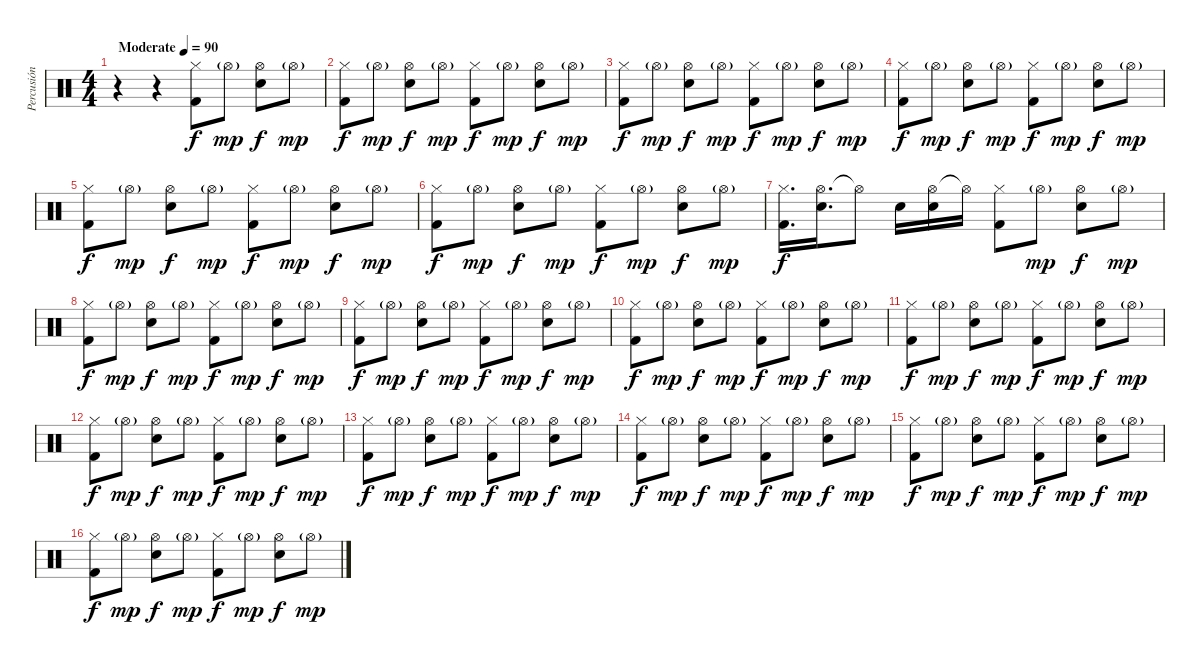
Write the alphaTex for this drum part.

\track ("Percusión" "Percusión") {instrument percussion}
\staff {score}
\articulation defaults
\ts (4 4)
\tempo (90 "Moderate")
\clef neutral
\ks c
r.4{dy f} r.4 ("Hi-Hat (closed)" "Kick (hit) 2").8 "Hi-Hat (open)"{g}.8{dy mp} ("Hi-Hat (open)" "Snare (hit) 2").8{dy f} "Hi-Hat (open)"{g}.8{dy mp} |
("Hi-Hat (closed)" "Kick (hit) 2").8{dy f} "Hi-Hat (open)"{g}.8{dy mp} ("Hi-Hat (open)" "Snare (hit) 2").8{dy f} "Hi-Hat (open)"{g}.8{dy mp} ("Hi-Hat (closed)" "Kick (hit) 2").8{dy f} "Hi-Hat (open)"{g}.8{dy mp} ("Hi-Hat (open)" "Snare (hit) 2").8{dy f} "Hi-Hat (open)"{g}.8{dy mp} |
("Hi-Hat (closed)" "Kick (hit) 2").8{dy f} "Hi-Hat (open)"{g}.8{dy mp} ("Hi-Hat (open)" "Snare (hit) 2").8{dy f} "Hi-Hat (open)"{g}.8{dy mp} ("Hi-Hat (closed)" "Kick (hit) 2").8{dy f} "Hi-Hat (open)"{g}.8{dy mp} ("Hi-Hat (open)" "Snare (hit) 2").8{dy f} "Hi-Hat (open)"{g}.8{dy mp} |
("Hi-Hat (closed)" "Kick (hit) 2").8{dy f} "Hi-Hat (open)"{g}.8{dy mp} ("Hi-Hat (open)" "Snare (hit) 2").8{dy f} "Hi-Hat (open)"{g}.8{dy mp} ("Hi-Hat (closed)" "Kick (hit) 2").8{dy f} "Hi-Hat (open)"{g}.8{dy mp} ("Hi-Hat (open)" "Snare (hit) 2").8{dy f} "Hi-Hat (open)"{g}.8{dy mp} |
("Hi-Hat (closed)" "Kick (hit) 2").8{dy f} "Hi-Hat (open)"{g}.8{dy mp} ("Hi-Hat (open)" "Snare (hit) 2").8{dy f} "Hi-Hat (open)"{g}.8{dy mp} ("Hi-Hat (closed)" "Kick (hit) 2").8{dy f} "Hi-Hat (open)"{g}.8{dy mp} ("Hi-Hat (open)" "Snare (hit) 2").8{dy f} "Hi-Hat (open)"{g}.8{dy mp} |
("Hi-Hat (closed)" "Kick (hit) 2").8{dy f} "Hi-Hat (open)"{g}.8{dy mp} ("Hi-Hat (open)" "Snare (hit) 2").8{dy f} "Hi-Hat (open)"{g}.8{dy mp} ("Hi-Hat (closed)" "Kick (hit) 2").8{dy f} "Hi-Hat (open)"{g}.8{dy mp} ("Hi-Hat (open)" "Snare (hit) 2").8{dy f} "Hi-Hat (open)"{g}.8{dy mp} |
("Hi-Hat (closed)" "Kick (hit) 2").16{d dy f} ("Hi-Hat (open)" "Snare (hit) 2").16{d} "Hi-Hat (open)"{t}.8 "Snare (hit) 2".16 ("Hi-Hat (open)" "Snare (hit) 2").16 "Hi-Hat (open)"{t}.16 ("Hi-Hat (closed)" "Kick (hit) 2").8 "Hi-Hat (open)"{g}.8{dy mp} ("Hi-Hat (open)" "Snare (hit) 2").8{dy f} "Hi-Hat (open)"{g}.8{dy mp} |
("Hi-Hat (closed)" "Kick (hit) 2").8{dy f} "Hi-Hat (open)"{g}.8{dy mp} ("Hi-Hat (open)" "Snare (hit) 2").8{dy f} "Hi-Hat (open)"{g}.8{dy mp} ("Hi-Hat (closed)" "Kick (hit) 2").8{dy f} "Hi-Hat (open)"{g}.8{dy mp} ("Hi-Hat (open)" "Snare (hit) 2").8{dy f} "Hi-Hat (open)"{g}.8{dy mp} |
("Hi-Hat (closed)" "Kick (hit) 2").8{dy f} "Hi-Hat (open)"{g}.8{dy mp} ("Hi-Hat (open)" "Snare (hit) 2").8{dy f} "Hi-Hat (open)"{g}.8{dy mp} ("Hi-Hat (closed)" "Kick (hit) 2").8{dy f} "Hi-Hat (open)"{g}.8{dy mp} ("Hi-Hat (open)" "Snare (hit) 2").8{dy f} "Hi-Hat (open)"{g}.8{dy mp} |
("Hi-Hat (closed)" "Kick (hit) 2").8{dy f} "Hi-Hat (open)"{g}.8{dy mp} ("Hi-Hat (open)" "Snare (hit) 2").8{dy f} "Hi-Hat (open)"{g}.8{dy mp} ("Hi-Hat (closed)" "Kick (hit) 2").8{dy f} "Hi-Hat (open)"{g}.8{dy mp} ("Hi-Hat (open)" "Snare (hit) 2").8{dy f} "Hi-Hat (open)"{g}.8{dy mp} |
("Hi-Hat (closed)" "Kick (hit) 2").8{dy f} "Hi-Hat (open)"{g}.8{dy mp} ("Hi-Hat (open)" "Snare (hit) 2").8{dy f} "Hi-Hat (open)"{g}.8{dy mp} ("Hi-Hat (closed)" "Kick (hit) 2").8{dy f} "Hi-Hat (open)"{g}.8{dy mp} ("Hi-Hat (open)" "Snare (hit) 2").8{dy f} "Hi-Hat (open)"{g}.8{dy mp} |
("Hi-Hat (closed)" "Kick (hit) 2").8{dy f} "Hi-Hat (open)"{g}.8{dy mp} ("Hi-Hat (open)" "Snare (hit) 2").8{dy f} "Hi-Hat (open)"{g}.8{dy mp} ("Hi-Hat (closed)" "Kick (hit) 2").8{dy f} "Hi-Hat (open)"{g}.8{dy mp} ("Hi-Hat (open)" "Snare (hit) 2").8{dy f} "Hi-Hat (open)"{g}.8{dy mp} |
("Hi-Hat (closed)" "Kick (hit) 2").8{dy f} "Hi-Hat (open)"{g}.8{dy mp} ("Hi-Hat (open)" "Snare (hit) 2").8{dy f} "Hi-Hat (open)"{g}.8{dy mp} ("Hi-Hat (closed)" "Kick (hit) 2").8{dy f} "Hi-Hat (open)"{g}.8{dy mp} ("Hi-Hat (open)" "Snare (hit) 2").8{dy f} "Hi-Hat (open)"{g}.8{dy mp} |
("Hi-Hat (closed)" "Kick (hit) 2").8{dy f} "Hi-Hat (open)"{g}.8{dy mp} ("Hi-Hat (open)" "Snare (hit) 2").8{dy f} "Hi-Hat (open)"{g}.8{dy mp} ("Hi-Hat (closed)" "Kick (hit) 2").8{dy f} "Hi-Hat (open)"{g}.8{dy mp} ("Hi-Hat (open)" "Snare (hit) 2").8{dy f} "Hi-Hat (open)"{g}.8{dy mp} |
("Hi-Hat (closed)" "Kick (hit) 2").8{dy f} "Hi-Hat (open)"{g}.8{dy mp} ("Hi-Hat (open)" "Snare (hit) 2").8{dy f} "Hi-Hat (open)"{g}.8{dy mp} ("Hi-Hat (closed)" "Kick (hit) 2").8{dy f} "Hi-Hat (open)"{g}.8{dy mp} ("Hi-Hat (open)" "Snare (hit) 2").8{dy f} "Hi-Hat (open)"{g}.8{dy mp} |
("Hi-Hat (closed)" "Kick (hit) 2").8{dy f} "Hi-Hat (open)"{g}.8{dy mp} ("Hi-Hat (open)" "Snare (hit) 2").8{dy f} "Hi-Hat (open)"{g}.8{dy mp} ("Hi-Hat (closed)" "Kick (hit) 2").8{dy f} "Hi-Hat (open)"{g}.8{dy mp} ("Hi-Hat (open)" "Snare (hit) 2").8{dy f} "Hi-Hat (open)"{g}.8{dy mp}
